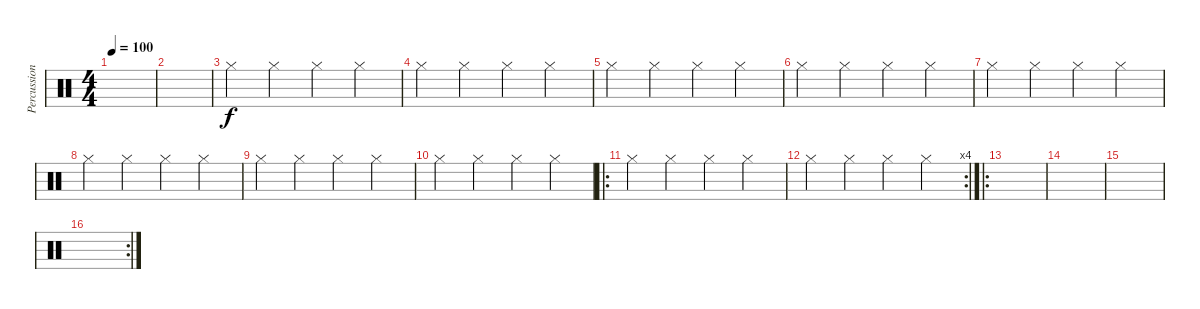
\track ("Percussion" "Percussion") {instrument percussion}
\staff {score}
\articulation defaults
\ts (4 4)
\tempo 100
\clef neutral
\ks c
|
|
"Hi-Hat (closed)".4 "Hi-Hat (closed)".4 "Hi-Hat (closed)".4 "Hi-Hat (closed)".4 |
"Hi-Hat (closed)".4 "Hi-Hat (closed)".4 "Hi-Hat (closed)".4 "Hi-Hat (closed)".4 |
"Hi-Hat (closed)".4 "Hi-Hat (closed)".4 "Hi-Hat (closed)".4 "Hi-Hat (closed)".4 |
"Hi-Hat (closed)".4 "Hi-Hat (closed)".4 "Hi-Hat (closed)".4 "Hi-Hat (closed)".4 |
"Hi-Hat (closed)".4 "Hi-Hat (closed)".4 "Hi-Hat (closed)".4 "Hi-Hat (closed)".4 |
"Hi-Hat (closed)".4 "Hi-Hat (closed)".4 "Hi-Hat (closed)".4 "Hi-Hat (closed)".4 |
"Hi-Hat (closed)".4 "Hi-Hat (closed)".4 "Hi-Hat (closed)".4 "Hi-Hat (closed)".4 |
"Hi-Hat (closed)".4 "Hi-Hat (closed)".4 "Hi-Hat (closed)".4 "Hi-Hat (closed)".4 |
\ro "Hi-Hat (closed)".4 "Hi-Hat (closed)".4 "Hi-Hat (closed)".4 "Hi-Hat (closed)".4
|
\rc 4 "Hi-Hat (closed)".4 "Hi-Hat (closed)".4 "Hi-Hat (closed)".4 "Hi-Hat (closed)".4
|
\ro
|
|
|
\rc 2
